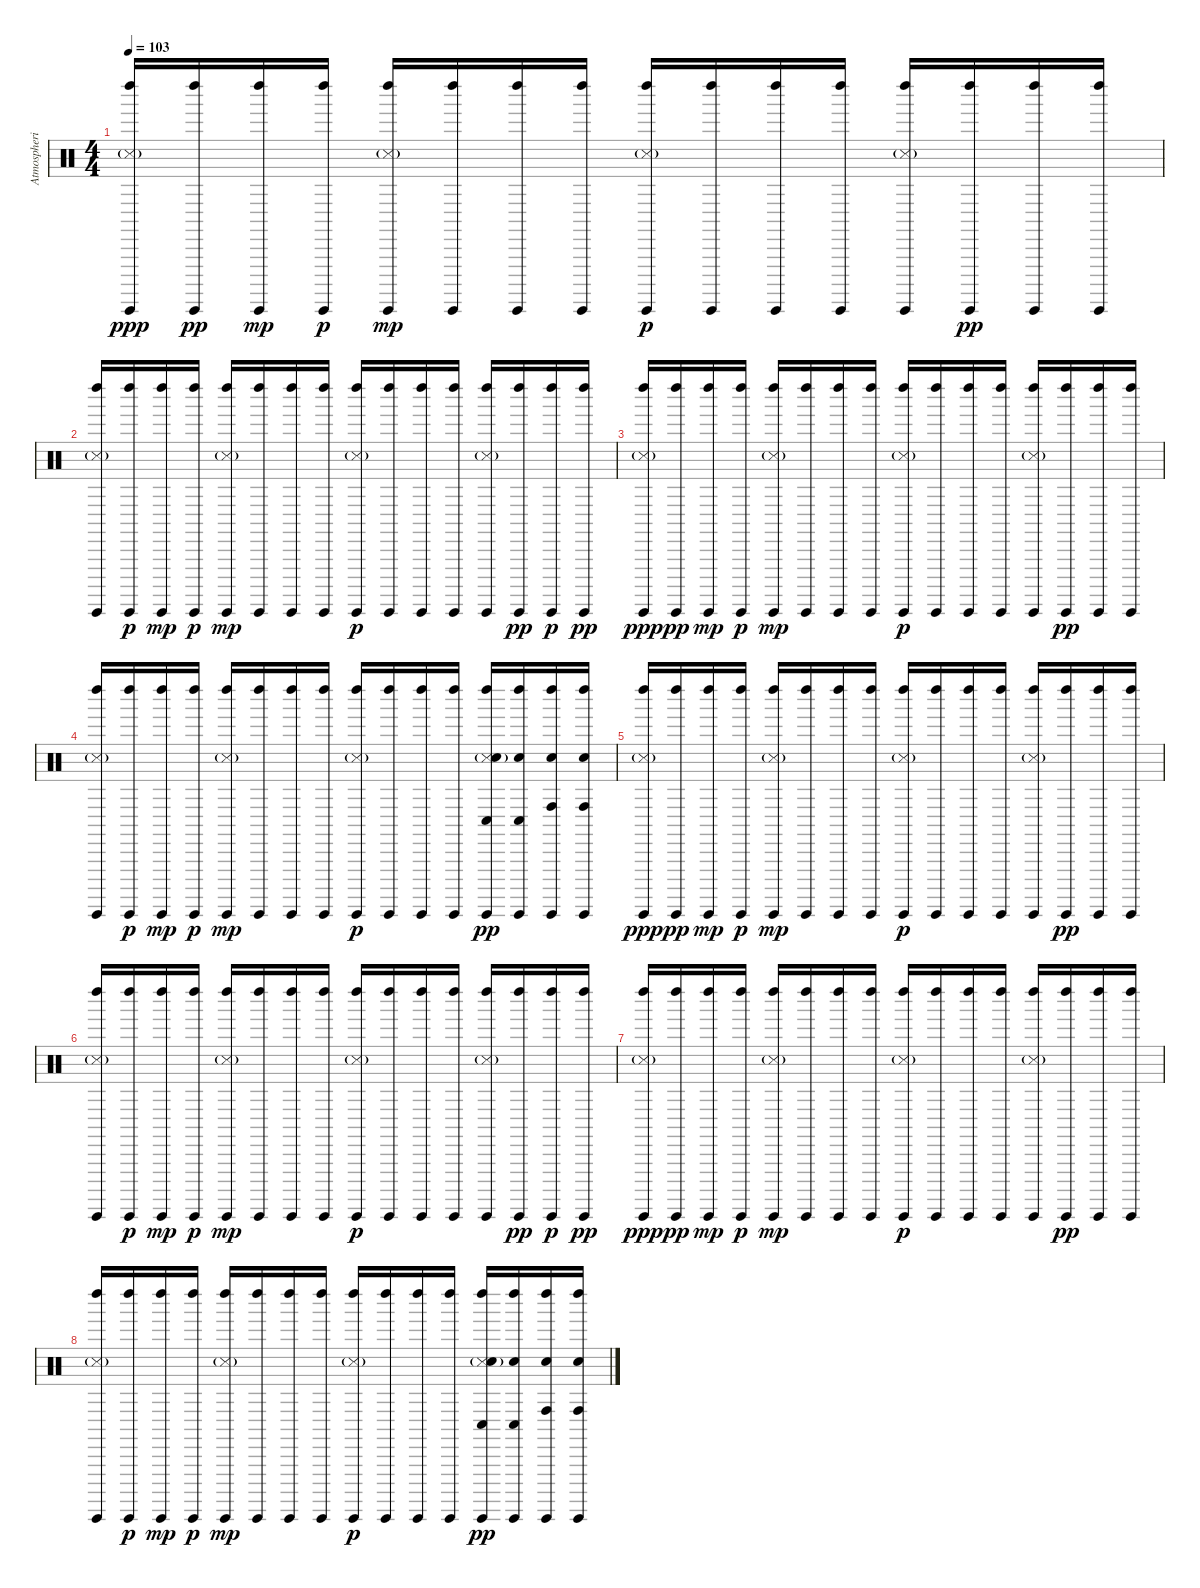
\track ("Atmospheric Percussion" "Atmospheri") {instrument percussion}
\staff {score}
\articulation defaults
\ts (4 4)
\tempo 103
\clef neutral
\ks c
("Guiro (hit)" "Snare (side stick) 3"{g} "Left Maraca (hit)").16{dy ppp} ("Guiro (hit)" "Left Maraca (hit)").16{dy pp} ("Guiro (hit)" "Left Maraca (hit)").16{dy mp} ("Guiro (hit)" "Left Maraca (hit)").16{dy p} ("Guiro (hit)" "Snare (side stick) 3"{g} "Left Maraca (hit)").16{dy mp} ("Guiro (hit)" "Left Maraca (hit)").16 ("Guiro (hit)" "Left Maraca (hit)").16 ("Guiro (hit)" "Left Maraca (hit)").16 ("Guiro (hit)" "Snare (side stick) 3"{g} "Left Maraca (hit)").16{dy p} ("Guiro (hit)" "Left Maraca (hit)").16 ("Guiro (hit)" "Left Maraca (hit)").16 ("Guiro (hit)" "Left Maraca (hit)").16 ("Guiro (hit)" "Snare (side stick) 3"{g} "Left Maraca (hit)").16 ("Guiro (hit)" "Left Maraca (hit)").16{dy pp} ("Guiro (hit)" "Left Maraca (hit)").16 ("Guiro (hit)" "Left Maraca (hit)").16 |
("Guiro (hit)" "Snare (side stick) 3"{g} "Left Maraca (hit)").16 ("Guiro (hit)" "Left Maraca (hit)").16{dy p} ("Guiro (hit)" "Left Maraca (hit)").16{dy mp} ("Guiro (hit)" "Left Maraca (hit)").16{dy p} ("Guiro (hit)" "Snare (side stick) 3"{g} "Left Maraca (hit)").16{dy mp} ("Guiro (hit)" "Left Maraca (hit)").16 ("Guiro (hit)" "Left Maraca (hit)").16 ("Guiro (hit)" "Left Maraca (hit)").16 ("Guiro (hit)" "Snare (side stick) 3"{g} "Left Maraca (hit)").16{dy p} ("Guiro (hit)" "Left Maraca (hit)").16 ("Guiro (hit)" "Left Maraca (hit)").16 ("Guiro (hit)" "Left Maraca (hit)").16 ("Guiro (hit)" "Snare (side stick) 3"{g} "Left Maraca (hit)").16 ("Guiro (hit)" "Left Maraca (hit)").16{dy pp} ("Guiro (hit)" "Left Maraca (hit)").16{dy p} ("Guiro (hit)" "Left Maraca (hit)").16{dy pp} |
("Guiro (hit)" "Snare (side stick) 3"{g} "Left Maraca (hit)").16{dy ppp} ("Guiro (hit)" "Left Maraca (hit)").16{dy pp} ("Guiro (hit)" "Left Maraca (hit)").16{dy mp} ("Guiro (hit)" "Left Maraca (hit)").16{dy p} ("Guiro (hit)" "Snare (side stick) 3"{g} "Left Maraca (hit)").16{dy mp} ("Guiro (hit)" "Left Maraca (hit)").16 ("Guiro (hit)" "Left Maraca (hit)").16 ("Guiro (hit)" "Left Maraca (hit)").16 ("Guiro (hit)" "Snare (side stick) 3"{g} "Left Maraca (hit)").16{dy p} ("Guiro (hit)" "Left Maraca (hit)").16 ("Guiro (hit)" "Left Maraca (hit)").16 ("Guiro (hit)" "Left Maraca (hit)").16 ("Guiro (hit)" "Snare (side stick) 3"{g} "Left Maraca (hit)").16 ("Guiro (hit)" "Left Maraca (hit)").16{dy pp} ("Guiro (hit)" "Left Maraca (hit)").16 ("Guiro (hit)" "Left Maraca (hit)").16 |
("Guiro (hit)" "Snare (side stick) 3"{g} "Left Maraca (hit)").16 ("Guiro (hit)" "Left Maraca (hit)").16{dy p} ("Guiro (hit)" "Left Maraca (hit)").16{dy mp} ("Guiro (hit)" "Left Maraca (hit)").16{dy p} ("Guiro (hit)" "Snare (side stick) 3"{g} "Left Maraca (hit)").16{dy mp} ("Guiro (hit)" "Left Maraca (hit)").16 ("Guiro (hit)" "Left Maraca (hit)").16 ("Guiro (hit)" "Left Maraca (hit)").16 ("Guiro (hit)" "Snare (side stick) 3"{g} "Left Maraca (hit)").16{dy p} ("Guiro (hit)" "Left Maraca (hit)").16 ("Guiro (hit)" "Left Maraca (hit)").16 ("Guiro (hit)" "Left Maraca (hit)").16 ("Guiro (hit)" "Snare (side stick) 3"{g} "Left Maraca (hit)" "Conga low (hit)" "Electric Snare (hit)").16{dy pp} ("Guiro (hit)" "Left Maraca (hit)" "Conga low (hit)" "Electric Snare (hit)").16 ("Guiro (hit)" "Left Maraca (hit)" "Conga high (hit)" "Electric Snare (hit)").16 ("Guiro (hit)" "Left Maraca (hit)" "Conga high (hit)" "Electric Snare (hit)").16 |
("Guiro (hit)" "Snare (side stick) 3"{g} "Left Maraca (hit)").16{dy ppp} ("Guiro (hit)" "Left Maraca (hit)").16{dy pp} ("Guiro (hit)" "Left Maraca (hit)").16{dy mp} ("Guiro (hit)" "Left Maraca (hit)").16{dy p} ("Guiro (hit)" "Snare (side stick) 3"{g} "Left Maraca (hit)").16{dy mp} ("Guiro (hit)" "Left Maraca (hit)").16 ("Guiro (hit)" "Left Maraca (hit)").16 ("Guiro (hit)" "Left Maraca (hit)").16 ("Guiro (hit)" "Snare (side stick) 3"{g} "Left Maraca (hit)").16{dy p} ("Guiro (hit)" "Left Maraca (hit)").16 ("Guiro (hit)" "Left Maraca (hit)").16 ("Guiro (hit)" "Left Maraca (hit)").16 ("Guiro (hit)" "Snare (side stick) 3"{g} "Left Maraca (hit)").16 ("Guiro (hit)" "Left Maraca (hit)").16{dy pp} ("Guiro (hit)" "Left Maraca (hit)").16 ("Guiro (hit)" "Left Maraca (hit)").16 |
("Guiro (hit)" "Snare (side stick) 3"{g} "Left Maraca (hit)").16 ("Guiro (hit)" "Left Maraca (hit)").16{dy p} ("Guiro (hit)" "Left Maraca (hit)").16{dy mp} ("Guiro (hit)" "Left Maraca (hit)").16{dy p} ("Guiro (hit)" "Snare (side stick) 3"{g} "Left Maraca (hit)").16{dy mp} ("Guiro (hit)" "Left Maraca (hit)").16 ("Guiro (hit)" "Left Maraca (hit)").16 ("Guiro (hit)" "Left Maraca (hit)").16 ("Guiro (hit)" "Snare (side stick) 3"{g} "Left Maraca (hit)").16{dy p} ("Guiro (hit)" "Left Maraca (hit)").16 ("Guiro (hit)" "Left Maraca (hit)").16 ("Guiro (hit)" "Left Maraca (hit)").16 ("Guiro (hit)" "Snare (side stick) 3"{g} "Left Maraca (hit)").16 ("Guiro (hit)" "Left Maraca (hit)").16{dy pp} ("Guiro (hit)" "Left Maraca (hit)").16{dy p} ("Guiro (hit)" "Left Maraca (hit)").16{dy pp} |
("Guiro (hit)" "Snare (side stick) 3"{g} "Left Maraca (hit)").16{dy ppp} ("Guiro (hit)" "Left Maraca (hit)").16{dy pp} ("Guiro (hit)" "Left Maraca (hit)").16{dy mp} ("Guiro (hit)" "Left Maraca (hit)").16{dy p} ("Guiro (hit)" "Snare (side stick) 3"{g} "Left Maraca (hit)").16{dy mp} ("Guiro (hit)" "Left Maraca (hit)").16 ("Guiro (hit)" "Left Maraca (hit)").16 ("Guiro (hit)" "Left Maraca (hit)").16 ("Guiro (hit)" "Snare (side stick) 3"{g} "Left Maraca (hit)").16{dy p} ("Guiro (hit)" "Left Maraca (hit)").16 ("Guiro (hit)" "Left Maraca (hit)").16 ("Guiro (hit)" "Left Maraca (hit)").16 ("Guiro (hit)" "Snare (side stick) 3"{g} "Left Maraca (hit)").16 ("Guiro (hit)" "Left Maraca (hit)").16{dy pp} ("Guiro (hit)" "Left Maraca (hit)").16 ("Guiro (hit)" "Left Maraca (hit)").16 |
("Guiro (hit)" "Snare (side stick) 3"{g} "Left Maraca (hit)").16 ("Guiro (hit)" "Left Maraca (hit)").16{dy p} ("Guiro (hit)" "Left Maraca (hit)").16{dy mp} ("Guiro (hit)" "Left Maraca (hit)").16{dy p} ("Guiro (hit)" "Snare (side stick) 3"{g} "Left Maraca (hit)").16{dy mp} ("Guiro (hit)" "Left Maraca (hit)").16 ("Guiro (hit)" "Left Maraca (hit)").16 ("Guiro (hit)" "Left Maraca (hit)").16 ("Guiro (hit)" "Snare (side stick) 3"{g} "Left Maraca (hit)").16{dy p} ("Guiro (hit)" "Left Maraca (hit)").16 ("Guiro (hit)" "Left Maraca (hit)").16 ("Guiro (hit)" "Left Maraca (hit)").16 ("Guiro (hit)" "Snare (side stick) 3"{g} "Left Maraca (hit)" "Conga low (hit)" "Electric Snare (hit)").16{dy pp} ("Guiro (hit)" "Left Maraca (hit)" "Conga low (hit)" "Electric Snare (hit)").16 ("Guiro (hit)" "Left Maraca (hit)" "Conga high (hit)" "Electric Snare (hit)").16 ("Guiro (hit)" "Left Maraca (hit)" "Conga high (hit)" "Electric Snare (hit)").16
